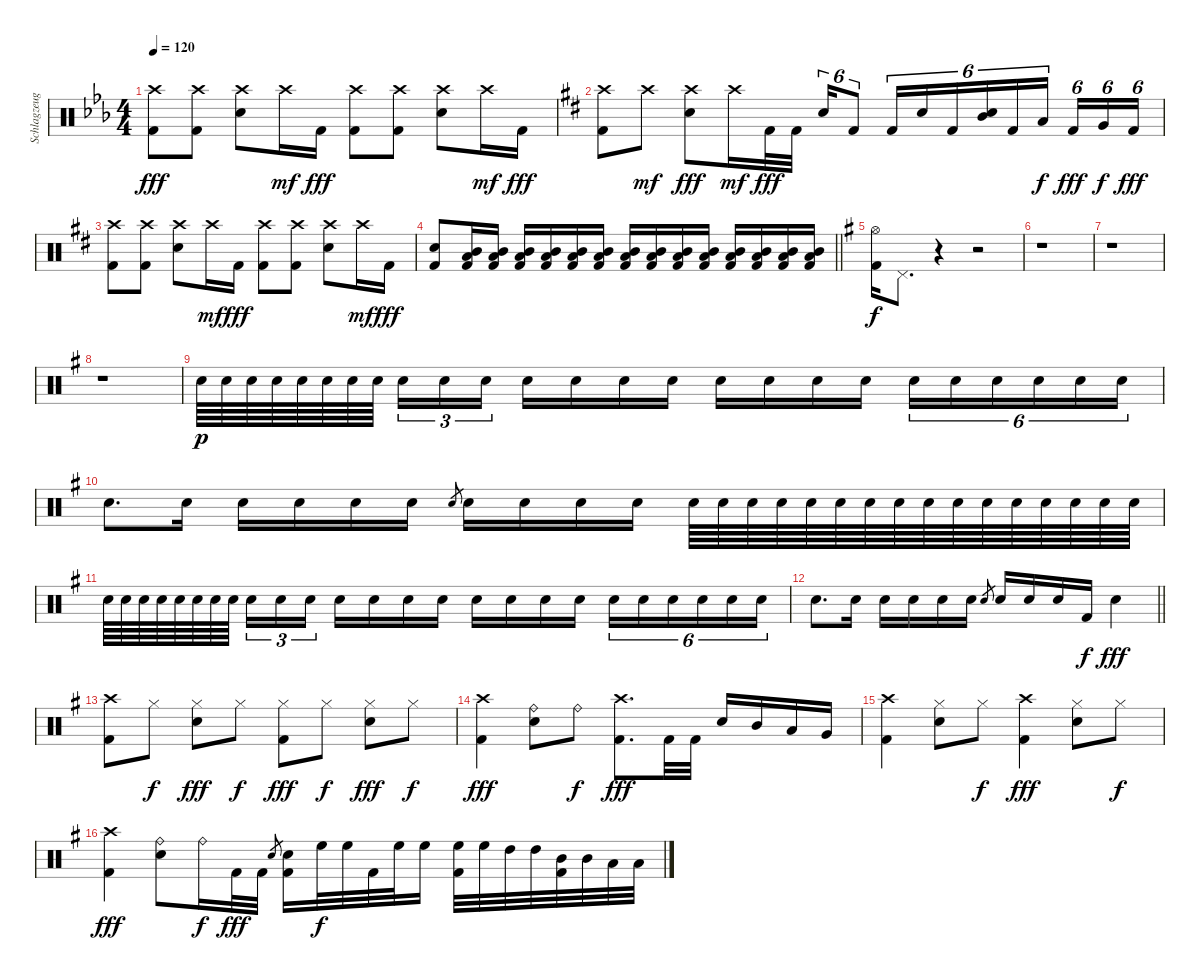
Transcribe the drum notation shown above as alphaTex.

\track ("Schlagzeug" "Schlagzeug") {instrument percussion}
\staff {score}
\articulation defaults
\ts (4 4)
\tempo 120
\clef neutral
\ks cminor
("Crash high (hit)" "Kick (hit) 2").8{dy fff} ("Crash high (hit)" "Kick (hit) 2").8 ("Crash high (hit)" "Snare (hit) 2").8 "Crash high (hit)".16{dy mf} "Kick (hit) 2".16{dy fff} ("Crash high (hit)" "Kick (hit) 2").8 ("Crash high (hit)" "Kick (hit) 2").8 ("Crash high (hit)" "Snare (hit) 2").8 "Crash high (hit)".16{dy mf} "Kick (hit) 2".16{dy fff} |
\ks bminor
("Crash high (hit)" "Kick (hit) 2").8 "Crash high (hit)".8{dy mf} ("Crash high (hit)" "Snare (hit) 2").8{dy fff} "Crash high (hit)".16{dy mf} "Kick (hit) 2".32{dy fff} "Kick (hit) 2".32 "Snare (hit) 2".16{tu (6 4)} "Kick (hit) 2".8{tu (6 4)} "Kick (hit) 2".16{tu (6 4)} "Snare (hit) 2".16{tu (6 4)} "Kick (hit) 2".16{tu (6 4)} ("Mid Tom (hit)" "Snare (hit) 2").16{tu (6 4)} "Kick (hit) 2".16{tu (6 4)} "Low Tom (hit)".16{tu (6 4) dy f} "Kick (hit) 2".16{tu (6 4) dy fff} "Very Low Tom (hit)".16{tu (6 4) dy f} "Kick (hit) 2".16{tu (6 4) dy fff} |
("Crash high (hit)" "Kick (hit) 2").8 ("Crash high (hit)" "Kick (hit) 2").8 ("Crash high (hit)" "Snare (hit) 2").8 "Crash high (hit)".16{dy mf} "Kick (hit) 2".16{dy fff} ("Crash high (hit)" "Kick (hit) 2").8 ("Crash high (hit)" "Kick (hit) 2").8 ("Crash high (hit)" "Snare (hit) 2").8 "Crash high (hit)".16{dy mf} "Kick (hit) 2".16{dy fff} |
\barLineRight lightlight
("Snare (hit) 2" "Kick (hit) 2").8 ("Mid Tom (hit)" "Low Tom (hit)" "Kick (hit) 2").16 ("Mid Tom (hit)" "Low Tom (hit)" "Kick (hit) 2").16 ("Mid Tom (hit)" "Low Tom (hit)" "Kick (hit) 2").16 ("Mid Tom (hit)" "Low Tom (hit)" "Kick (hit) 2").16 ("Mid Tom (hit)" "Low Tom (hit)" "Kick (hit) 2").16 ("Mid Tom (hit)" "Low Tom (hit)" "Kick (hit) 2").16 ("Mid Tom (hit)" "Low Tom (hit)" "Kick (hit) 2").16 ("Mid Tom (hit)" "Low Tom (hit)" "Kick (hit) 2").16 ("Mid Tom (hit)" "Low Tom (hit)" "Kick (hit) 2").16 ("Mid Tom (hit)" "Low Tom (hit)" "Kick (hit) 2").16 ("Mid Tom (hit)" "Low Tom (hit)" "Kick (hit) 2").16 ("Mid Tom (hit)" "Low Tom (hit)" "Kick (hit) 2").16 ("Mid Tom (hit)" "Low Tom (hit)" "Kick (hit) 2").16 ("Mid Tom (hit)" "Low Tom (hit)" "Kick (hit) 2").16 |
\ks eminor
("Hi-Hat (open)" "Kick (hit) 2").16{dy f} "Pedal Hi-Hat (hit)".8{d} r.4 r.2 |
r.1 |
r.1 |
r.1 |
"Electric Snare (hit)".64{dy p} "Electric Snare (hit)".64 "Electric Snare (hit)".64 "Electric Snare (hit)".64 "Electric Snare (hit)".64 "Electric Snare (hit)".64 "Electric Snare (hit)".64 "Electric Snare (hit)".64{beam splitsecondary} "Electric Snare (hit)".16{tu (3 2)} "Electric Snare (hit)".16{tu (3 2)} "Electric Snare (hit)".16{tu (3 2)} "Electric Snare (hit)".16 "Electric Snare (hit)".16 "Electric Snare (hit)".16 "Electric Snare (hit)".16 "Electric Snare (hit)".16 "Electric Snare (hit)".16 "Electric Snare (hit)".16 "Electric Snare (hit)".16 "Electric Snare (hit)".16{tu (6 4)} "Electric Snare (hit)".16{tu (6 4)} "Electric Snare (hit)".16{tu (6 4)} "Electric Snare (hit)".16{tu (6 4)} "Electric Snare (hit)".16{tu (6 4)} "Electric Snare (hit)".16{tu (6 4)} |
"Electric Snare (hit)".8{d} "Electric Snare (hit)".16 "Electric Snare (hit)".16 "Electric Snare (hit)".16 "Electric Snare (hit)".16 "Electric Snare (hit)".16 "Electric Snare (hit)".8{gr} "Electric Snare (hit)".16 "Electric Snare (hit)".16 "Electric Snare (hit)".16 "Electric Snare (hit)".16 "Electric Snare (hit)".64 "Electric Snare (hit)".64 "Electric Snare (hit)".64 "Electric Snare (hit)".64 "Electric Snare (hit)".64 "Electric Snare (hit)".64 "Electric Snare (hit)".64 "Electric Snare (hit)".64 "Electric Snare (hit)".64 "Electric Snare (hit)".64 "Electric Snare (hit)".64 "Electric Snare (hit)".64 "Electric Snare (hit)".64 "Electric Snare (hit)".64 "Electric Snare (hit)".64 "Electric Snare (hit)".64 |
"Electric Snare (hit)".64 "Electric Snare (hit)".64 "Electric Snare (hit)".64 "Electric Snare (hit)".64 "Electric Snare (hit)".64 "Electric Snare (hit)".64 "Electric Snare (hit)".64 "Electric Snare (hit)".64{beam splitsecondary} "Electric Snare (hit)".16{tu (3 2)} "Electric Snare (hit)".16{tu (3 2)} "Electric Snare (hit)".16{tu (3 2)} "Electric Snare (hit)".16 "Electric Snare (hit)".16 "Electric Snare (hit)".16 "Electric Snare (hit)".16 "Electric Snare (hit)".16 "Electric Snare (hit)".16 "Electric Snare (hit)".16 "Electric Snare (hit)".16 "Electric Snare (hit)".16{tu (6 4)} "Electric Snare (hit)".16{tu (6 4)} "Electric Snare (hit)".16{tu (6 4)} "Electric Snare (hit)".16{tu (6 4)} "Electric Snare (hit)".16{tu (6 4)} "Electric Snare (hit)".16{tu (6 4)} |
\barLineRight lightlight "Electric Snare (hit)".8{d} "Electric Snare (hit)".16 "Electric Snare (hit)".16 "Electric Snare (hit)".16 "Electric Snare (hit)".16 "Electric Snare (hit)".16 "Electric Snare (hit)".8{gr} "Electric Snare (hit)".16 "Electric Snare (hit)".16 "Electric Snare (hit)".16 "Kick (hit) 2".16{dy f} "Snare (hit) 2".4{dy fff}
|
("Crash high (hit)" "Kick (hit) 2").8 "Hi-Hat (closed)".8{dy f} ("Hi-Hat (closed)" "Snare (hit) 2").8{dy fff} "Hi-Hat (closed)".8{dy f} ("Hi-Hat (closed)" "Kick (hit) 2").8{dy fff} "Hi-Hat (closed)".8{dy f} ("Hi-Hat (closed)" "Snare (hit) 2").8{dy fff} "Hi-Hat (closed)".8{dy f} |
("Crash high (hit)" "Kick (hit) 2").4{dy fff} ("Ride (bell)" "Snare (hit) 2").8 "Ride (bell)".8{dy f} ("Crash high (hit)" "Kick (hit) 2").8{d dy fff} "Kick (hit) 2".32 "Kick (hit) 2".32 "Snare (hit) 2".16 "Mid Tom (hit)".16 "Low Tom (hit)".16 "Very Low Tom (hit)".16 |
("Crash high (hit)" "Kick (hit) 2").4 ("Hi-Hat (closed)" "Snare (hit) 2").8 "Hi-Hat (closed)".8{dy f} ("Crash high (hit)" "Kick (hit) 2").4{dy fff} ("Hi-Hat (closed)" "Snare (hit) 2").8 "Hi-Hat (closed)".8{dy f} |
("Crash high (hit)" "Kick (hit) 2").4{dy fff} ("Ride (bell)" "Snare (hit) 2").8 "Ride (bell)".16{dy f} "Kick (hit) 2".32{dy fff} "Kick (hit) 2".32 "Snare (hit) 2".8{gr} ("Snare (hit) 2" "Kick (hit) 2").16 "High Floor Tom (hit)".32{dy f} "High Floor Tom (hit)".32 "Kick (hit) 2".32 "High Floor Tom (hit)".32 "High Floor Tom (hit)".16 ("High Floor Tom (hit)" "Kick (hit) 2").32 "High Floor Tom (hit)".32 "High Tom (hit)".32 "High Tom (hit)".32 ("Mid Tom (hit)" "Kick (hit) 2").32 "Mid Tom (hit)".32 "Low Tom (hit)".32 "Low Tom (hit)".32
